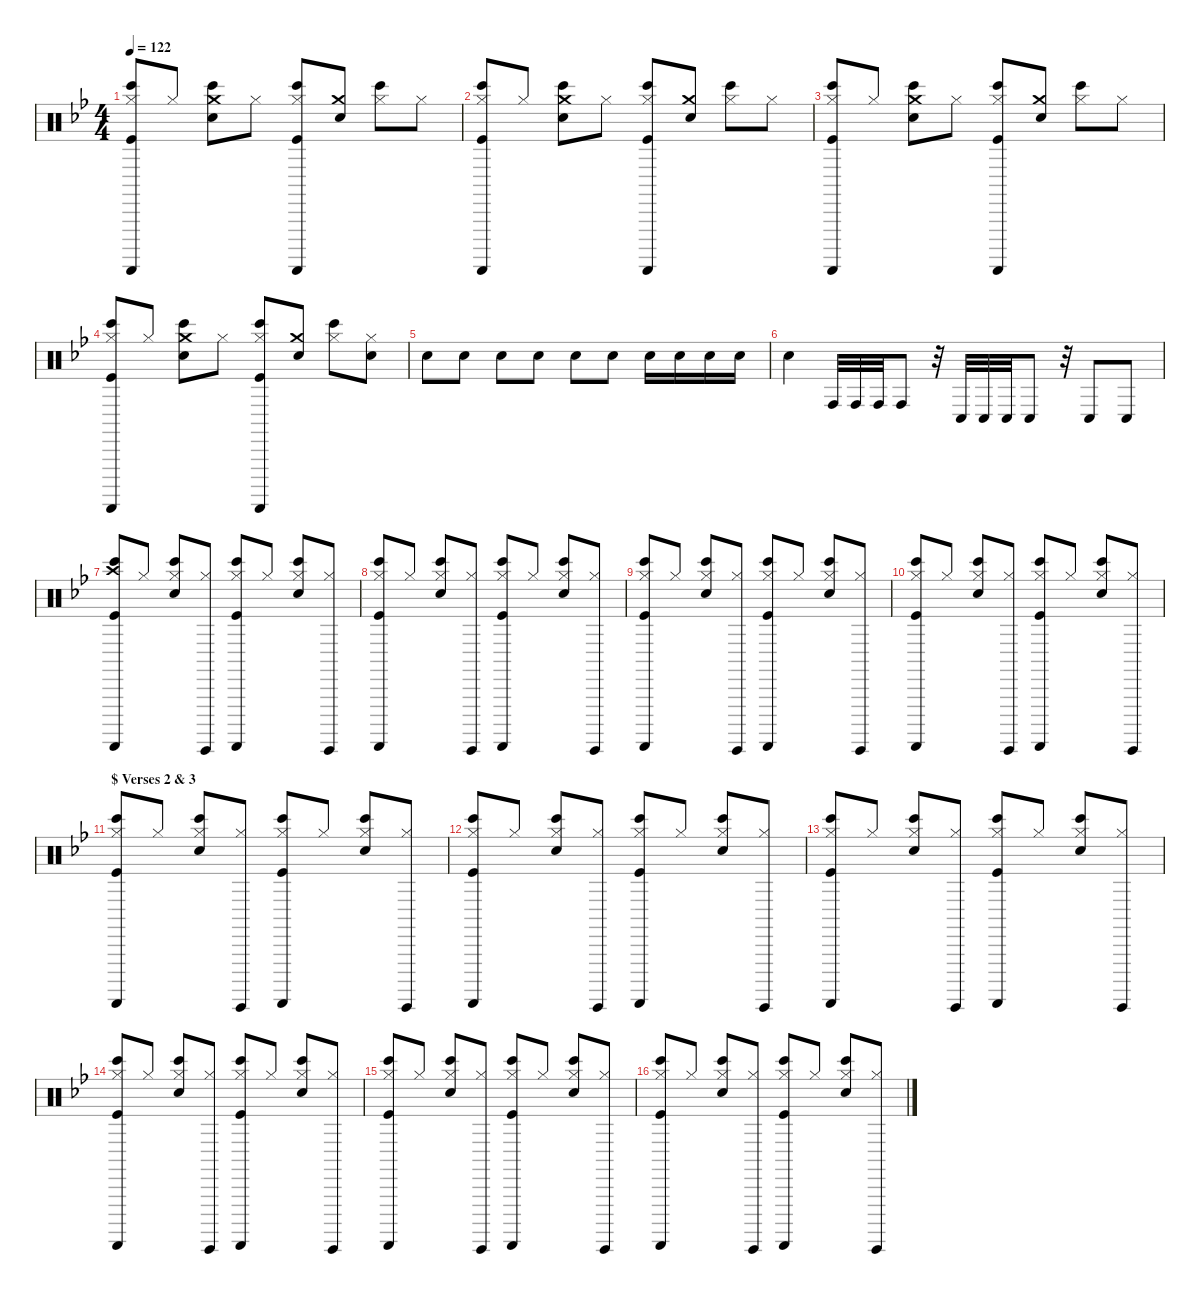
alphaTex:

\defaultSystemsLayout 4
\hideDynamics
\bracketExtendMode nobrackets
\singleTrackTrackNamePolicy hidden
\multiTrackTrackNamePolicy hidden
\firstSystemTrackNameMode fullname
\firstSystemTrackNameOrientation horizontal
\otherSystemsTrackNameOrientation horizontal
\track ("Percussions" "drm.") {instrument percussion}
\staff {score}
\articulation defaults
\ts (4 4)
\tempo 122
\clef neutral
\ks bb
("Hi-Hat (closed)"{acc forcenatural} "Bongo High (hit)"{acc forcenatural} "Guiro (scrap-return)"{acc forcenatural} "Kick (hit)"{acc forcenatural}).8{dy f beam Up} "Hi-Hat (closed)"{acc forcenatural}.8{dy mp beam Up} ("Crash medium (hit)"{acc forcenatural} "Bongo High (hit)"{acc forcenatural} "Snare (hit) 2"{acc forcenatural}).8{dy f beam Down} "Hi-Hat (closed)"{acc forcenatural}.8{dy mp beam Down} ("Hi-Hat (closed)"{acc forcenatural} "Bongo High (hit)"{acc forcenatural} "Guiro (scrap-return)"{acc forcenatural} "Kick (hit)"{acc forcenatural}).8{dy f beam Up} ("Crash medium (hit)"{acc forcenatural} "Snare (hit) 2"{acc forcenatural}).8{beam Up} ("Hi-Hat (closed)"{acc forcenatural} "Bongo High (hit)"{acc forcenatural}).8{beam Down} "Hi-Hat (closed)"{acc forcenatural}.8{dy mp beam Down} |
("Hi-Hat (closed)"{acc forcenatural} "Bongo High (hit)"{acc forcenatural} "Guiro (scrap-return)"{acc forcenatural} "Kick (hit)"{acc forcenatural}).8{dy f beam Up} "Hi-Hat (closed)"{acc forcenatural}.8{dy mp beam Up} ("Crash medium (hit)"{acc forcenatural} "Bongo High (hit)"{acc forcenatural} "Snare (hit) 2"{acc forcenatural}).8{dy f beam Down} "Hi-Hat (closed)"{acc forcenatural}.8{dy mp beam Down} ("Hi-Hat (closed)"{acc forcenatural} "Bongo High (hit)"{acc forcenatural} "Guiro (scrap-return)"{acc forcenatural} "Kick (hit)"{acc forcenatural}).8{dy f beam Up} ("Crash medium (hit)"{acc forcenatural} "Snare (hit) 2"{acc forcenatural}).8{beam Up} ("Hi-Hat (closed)"{acc forcenatural} "Bongo High (hit)"{acc forcenatural}).8{beam Down} "Hi-Hat (closed)"{acc forcenatural}.8{dy mp beam Down} |
("Hi-Hat (closed)"{acc forcenatural} "Bongo High (hit)"{acc forcenatural} "Guiro (scrap-return)"{acc forcenatural} "Kick (hit)"{acc forcenatural}).8{dy f beam Up} "Hi-Hat (closed)"{acc forcenatural}.8{dy mp beam Up} ("Crash medium (hit)"{acc forcenatural} "Bongo High (hit)"{acc forcenatural} "Snare (hit) 2"{acc forcenatural}).8{dy f beam Down} "Hi-Hat (closed)"{acc forcenatural}.8{dy mp beam Down} ("Hi-Hat (closed)"{acc forcenatural} "Bongo High (hit)"{acc forcenatural} "Guiro (scrap-return)"{acc forcenatural} "Kick (hit)"{acc forcenatural}).8{dy f beam Up} ("Crash medium (hit)"{acc forcenatural} "Snare (hit) 2"{acc forcenatural}).8{beam Up} ("Hi-Hat (closed)"{acc forcenatural} "Bongo High (hit)"{acc forcenatural}).8{beam Down} "Hi-Hat (closed)"{acc forcenatural}.8{dy mp beam Down} |
("Hi-Hat (closed)"{acc forcenatural} "Bongo High (hit)"{acc forcenatural} "Guiro (scrap-return)"{acc forcenatural} "Kick (hit)"{acc forcenatural}).8{dy f beam Up} "Hi-Hat (closed)"{acc forcenatural}.8{dy mp beam Up} ("Crash medium (hit)"{acc forcenatural} "Bongo High (hit)"{acc forcenatural} "Snare (hit) 2"{acc forcenatural}).8{dy f beam Down} "Hi-Hat (closed)"{acc forcenatural}.8{dy mp beam Down} ("Hi-Hat (closed)"{acc forcenatural} "Bongo High (hit)"{acc forcenatural} "Guiro (scrap-return)"{acc forcenatural} "Kick (hit)"{acc forcenatural}).8{dy f beam Up} ("Crash medium (hit)"{acc forcenatural} "Snare (hit) 2"{acc forcenatural}).8{beam Up} ("Hi-Hat (closed)"{acc forcenatural} "Bongo High (hit)"{acc forcenatural}).8{beam Down} ("Hi-Hat (closed)"{acc forcenatural} "Snare (hit) 2"{acc forcenatural}).8{dy mp beam Down} |
"Snare (hit) 2"{acc forcenatural}.8{beam Down} "Snare (hit) 2"{acc forcenatural}.8{beam Down} "Snare (hit) 2"{acc forcenatural}.8{beam Down} "Snare (hit) 2"{acc forcenatural}.8{beam Down} "Snare (hit) 2"{acc forcenatural}.8{dy mf beam Down} "Snare (hit) 2"{acc forcenatural}.8{beam Down} "Snare (hit) 2"{acc forcenatural}.16{dy f beam Down} "Snare (hit) 2"{acc forcenatural}.16{beam Down} "Snare (hit) 2"{acc forcenatural}.16{beam Down} "Snare (hit) 2"{acc forcenatural}.16{beam Down} |
"Snare (hit) 2"{acc forcenatural}.4{beam Down} "Conga high (hit)"{acc forcenatural}.32{dy ff beam Up} "Conga high (hit)"{acc forcenatural}.32{beam Up} "Conga high (hit)"{acc forcenatural}.32{beam Up} "Conga high (hit)"{acc forcenatural}.8{dy f beam Up} r.32{beam Up} "Conga low (hit)"{acc forcenatural}.32{dy ff beam Up} "Conga low (hit)"{acc forcenatural}.32{beam Up} "Conga low (hit)"{acc forcenatural}.32{beam Up} "Conga low (hit)"{acc forcenatural}.8{beam Up} r.32{beam Up} "Conga low (hit)"{acc forcenatural}.8{beam Up} "Conga low (hit)"{acc forcenatural}.8{beam Up} |
("Crash high (hit)"{acc forcenatural} "Bongo High (hit)"{acc forcenatural} "Guiro (scrap-return)"{acc forcenatural} "Kick (hit)"{acc forcenatural}).8{dy f beam Up} "Hi-Hat (closed)"{acc forcenatural}.8{dy mp beam Up} ("Hi-Hat (closed)"{acc forcenatural} "Bongo High (hit)"{acc forcenatural} "Snare (hit) 2"{acc forcenatural}).8{dy f beam Up} ("Hi-Hat (closed)"{acc forcenatural} "Guiro (hit)"{acc forcenatural}).8{dy mp beam Up} ("Hi-Hat (closed)"{acc forcenatural} "Bongo High (hit)"{acc forcenatural} "Guiro (scrap-return)"{acc forcenatural} "Kick (hit)"{acc forcenatural}).8{dy f beam Up} "Hi-Hat (closed)"{acc forcenatural}.8{dy mp beam Up} ("Hi-Hat (closed)"{acc forcenatural} "Bongo High (hit)"{acc forcenatural} "Snare (hit) 2"{acc forcenatural}).8{dy f beam Up} ("Hi-Hat (closed)"{acc forcenatural} "Guiro (hit)"{acc forcenatural}).8{dy mp beam Up} |
("Hi-Hat (closed)"{acc forcenatural} "Bongo High (hit)"{acc forcenatural} "Guiro (scrap-return)"{acc forcenatural} "Kick (hit)"{acc forcenatural}).8{dy f beam Up} "Hi-Hat (closed)"{acc forcenatural}.8{dy mp beam Up} ("Hi-Hat (closed)"{acc forcenatural} "Bongo High (hit)"{acc forcenatural} "Snare (hit) 2"{acc forcenatural}).8{dy f beam Up} ("Hi-Hat (closed)"{acc forcenatural} "Guiro (hit)"{acc forcenatural}).8{dy mp beam Up} ("Hi-Hat (closed)"{acc forcenatural} "Bongo High (hit)"{acc forcenatural} "Guiro (scrap-return)"{acc forcenatural} "Kick (hit)"{acc forcenatural}).8{dy f beam Up} "Hi-Hat (closed)"{acc forcenatural}.8{dy mp beam Up} ("Hi-Hat (closed)"{acc forcenatural} "Bongo High (hit)"{acc forcenatural} "Snare (hit) 2"{acc forcenatural}).8{dy f beam Up} ("Hi-Hat (closed)"{acc forcenatural} "Guiro (hit)"{acc forcenatural}).8{dy mp beam Up} |
("Hi-Hat (closed)"{acc forcenatural} "Bongo High (hit)"{acc forcenatural} "Guiro (scrap-return)"{acc forcenatural} "Kick (hit)"{acc forcenatural}).8{dy f beam Up} "Hi-Hat (closed)"{acc forcenatural}.8{dy mp beam Up} ("Hi-Hat (closed)"{acc forcenatural} "Bongo High (hit)"{acc forcenatural} "Snare (hit) 2"{acc forcenatural}).8{dy f beam Up} ("Hi-Hat (closed)"{acc forcenatural} "Guiro (hit)"{acc forcenatural}).8{dy mp beam Up} ("Hi-Hat (closed)"{acc forcenatural} "Bongo High (hit)"{acc forcenatural} "Guiro (scrap-return)"{acc forcenatural} "Kick (hit)"{acc forcenatural}).8{dy f beam Up} "Hi-Hat (closed)"{acc forcenatural}.8{dy mp beam Up} ("Hi-Hat (closed)"{acc forcenatural} "Bongo High (hit)"{acc forcenatural} "Snare (hit) 2"{acc forcenatural}).8{dy f beam Up} ("Hi-Hat (closed)"{acc forcenatural} "Guiro (hit)"{acc forcenatural}).8{dy mp beam Up} |
("Hi-Hat (closed)"{acc forcenatural} "Bongo High (hit)"{acc forcenatural} "Guiro (scrap-return)"{acc forcenatural} "Kick (hit)"{acc forcenatural}).8{dy f beam Up} "Hi-Hat (closed)"{acc forcenatural}.8{dy mp beam Up} ("Hi-Hat (closed)"{acc forcenatural} "Bongo High (hit)"{acc forcenatural} "Snare (hit) 2"{acc forcenatural}).8{dy f beam Up} ("Hi-Hat (closed)"{acc forcenatural} "Guiro (hit)"{acc forcenatural}).8{dy mp beam Up} ("Hi-Hat (closed)"{acc forcenatural} "Bongo High (hit)"{acc forcenatural} "Guiro (scrap-return)"{acc forcenatural} "Kick (hit)"{acc forcenatural}).8{dy f beam Up} "Hi-Hat (closed)"{acc forcenatural}.8{dy mp beam Up} ("Hi-Hat (closed)"{acc forcenatural} "Bongo High (hit)"{acc forcenatural} "Snare (hit) 2"{acc forcenatural}).8{dy f beam Up} ("Hi-Hat (closed)"{acc forcenatural} "Guiro (hit)"{acc forcenatural}).8{dy mp beam Up} |
\section ("" "$ Verses 2 & 3")
("Hi-Hat (closed)"{acc forcenatural} "Bongo High (hit)"{acc forcenatural} "Guiro (scrap-return)"{acc forcenatural} "Kick (hit)"{acc forcenatural}).8{dy f beam Up} "Hi-Hat (closed)"{acc forcenatural}.8{dy mp beam Up} ("Hi-Hat (closed)"{acc forcenatural} "Bongo High (hit)"{acc forcenatural} "Snare (hit) 2"{acc forcenatural}).8{dy f beam Up} ("Hi-Hat (closed)"{acc forcenatural} "Guiro (hit)"{acc forcenatural}).8{dy mp beam Up} ("Hi-Hat (closed)"{acc forcenatural} "Bongo High (hit)"{acc forcenatural} "Guiro (scrap-return)"{acc forcenatural} "Kick (hit)"{acc forcenatural}).8{dy f beam Up} "Hi-Hat (closed)"{acc forcenatural}.8{dy mp beam Up} ("Hi-Hat (closed)"{acc forcenatural} "Bongo High (hit)"{acc forcenatural} "Snare (hit) 2"{acc forcenatural}).8{dy f beam Up} ("Hi-Hat (closed)"{acc forcenatural} "Guiro (hit)"{acc forcenatural}).8{dy mp beam Up} |
("Hi-Hat (closed)"{acc forcenatural} "Bongo High (hit)"{acc forcenatural} "Guiro (scrap-return)"{acc forcenatural} "Kick (hit)"{acc forcenatural}).8{dy f beam Up} "Hi-Hat (closed)"{acc forcenatural}.8{dy mp beam Up} ("Hi-Hat (closed)"{acc forcenatural} "Bongo High (hit)"{acc forcenatural} "Snare (hit) 2"{acc forcenatural}).8{dy f beam Up} ("Hi-Hat (closed)"{acc forcenatural} "Guiro (hit)"{acc forcenatural}).8{dy mp beam Up} ("Hi-Hat (closed)"{acc forcenatural} "Bongo High (hit)"{acc forcenatural} "Guiro (scrap-return)"{acc forcenatural} "Kick (hit)"{acc forcenatural}).8{dy f beam Up} "Hi-Hat (closed)"{acc forcenatural}.8{dy mp beam Up} ("Hi-Hat (closed)"{acc forcenatural} "Bongo High (hit)"{acc forcenatural} "Snare (hit) 2"{acc forcenatural}).8{dy f beam Up} ("Hi-Hat (closed)"{acc forcenatural} "Guiro (hit)"{acc forcenatural}).8{dy mp beam Up} |
("Hi-Hat (closed)"{acc forcenatural} "Bongo High (hit)"{acc forcenatural} "Guiro (scrap-return)"{acc forcenatural} "Kick (hit)"{acc forcenatural}).8{dy f beam Up} "Hi-Hat (closed)"{acc forcenatural}.8{dy mp beam Up} ("Hi-Hat (closed)"{acc forcenatural} "Bongo High (hit)"{acc forcenatural} "Snare (hit) 2"{acc forcenatural}).8{dy f beam Up} ("Hi-Hat (closed)"{acc forcenatural} "Guiro (hit)"{acc forcenatural}).8{dy mp beam Up} ("Hi-Hat (closed)"{acc forcenatural} "Bongo High (hit)"{acc forcenatural} "Guiro (scrap-return)"{acc forcenatural} "Kick (hit)"{acc forcenatural}).8{dy f beam Up} "Hi-Hat (closed)"{acc forcenatural}.8{dy mp beam Up} ("Hi-Hat (closed)"{acc forcenatural} "Bongo High (hit)"{acc forcenatural} "Snare (hit) 2"{acc forcenatural}).8{dy f beam Up} ("Hi-Hat (closed)"{acc forcenatural} "Guiro (hit)"{acc forcenatural}).8{dy mp beam Up} |
("Hi-Hat (closed)"{acc forcenatural} "Bongo High (hit)"{acc forcenatural} "Guiro (scrap-return)"{acc forcenatural} "Kick (hit)"{acc forcenatural}).8{dy f beam Up} "Hi-Hat (closed)"{acc forcenatural}.8{dy mp beam Up} ("Hi-Hat (closed)"{acc forcenatural} "Bongo High (hit)"{acc forcenatural} "Snare (hit) 2"{acc forcenatural}).8{dy f beam Up} ("Hi-Hat (closed)"{acc forcenatural} "Guiro (hit)"{acc forcenatural}).8{dy mp beam Up} ("Hi-Hat (closed)"{acc forcenatural} "Bongo High (hit)"{acc forcenatural} "Guiro (scrap-return)"{acc forcenatural} "Kick (hit)"{acc forcenatural}).8{dy f beam Up} "Hi-Hat (closed)"{acc forcenatural}.8{dy mp beam Up} ("Hi-Hat (closed)"{acc forcenatural} "Bongo High (hit)"{acc forcenatural} "Snare (hit) 2"{acc forcenatural}).8{dy f beam Up} ("Hi-Hat (closed)"{acc forcenatural} "Guiro (hit)"{acc forcenatural}).8{dy mp beam Up} |
("Hi-Hat (closed)"{acc forcenatural} "Bongo High (hit)"{acc forcenatural} "Guiro (scrap-return)"{acc forcenatural} "Kick (hit)"{acc forcenatural}).8{dy f beam Up} "Hi-Hat (closed)"{acc forcenatural}.8{dy mp beam Up} ("Hi-Hat (closed)"{acc forcenatural} "Bongo High (hit)"{acc forcenatural} "Snare (hit) 2"{acc forcenatural}).8{dy f beam Up} ("Hi-Hat (closed)"{acc forcenatural} "Guiro (hit)"{acc forcenatural}).8{dy mp beam Up} ("Hi-Hat (closed)"{acc forcenatural} "Bongo High (hit)"{acc forcenatural} "Guiro (scrap-return)"{acc forcenatural} "Kick (hit)"{acc forcenatural}).8{dy f beam Up} "Hi-Hat (closed)"{acc forcenatural}.8{dy mp beam Up} ("Hi-Hat (closed)"{acc forcenatural} "Bongo High (hit)"{acc forcenatural} "Snare (hit) 2"{acc forcenatural}).8{dy f beam Up} ("Hi-Hat (closed)"{acc forcenatural} "Guiro (hit)"{acc forcenatural}).8{dy mp beam Up} |
("Hi-Hat (closed)"{acc forcenatural} "Bongo High (hit)"{acc forcenatural} "Guiro (scrap-return)"{acc forcenatural} "Kick (hit)"{acc forcenatural}).8{dy f beam Up} "Hi-Hat (closed)"{acc forcenatural}.8{dy mp beam Up} ("Hi-Hat (closed)"{acc forcenatural} "Bongo High (hit)"{acc forcenatural} "Snare (hit) 2"{acc forcenatural}).8{dy f beam Up} ("Hi-Hat (closed)"{acc forcenatural} "Guiro (hit)"{acc forcenatural}).8{dy mp beam Up} ("Hi-Hat (closed)"{acc forcenatural} "Bongo High (hit)"{acc forcenatural} "Guiro (scrap-return)"{acc forcenatural} "Kick (hit)"{acc forcenatural}).8{dy f beam Up} "Hi-Hat (closed)"{acc forcenatural}.8{dy mp beam Up} ("Hi-Hat (closed)"{acc forcenatural} "Bongo High (hit)"{acc forcenatural} "Snare (hit) 2"{acc forcenatural}).8{dy f beam Up} ("Hi-Hat (closed)"{acc forcenatural} "Guiro (hit)"{acc forcenatural}).8{dy mp beam Up}
